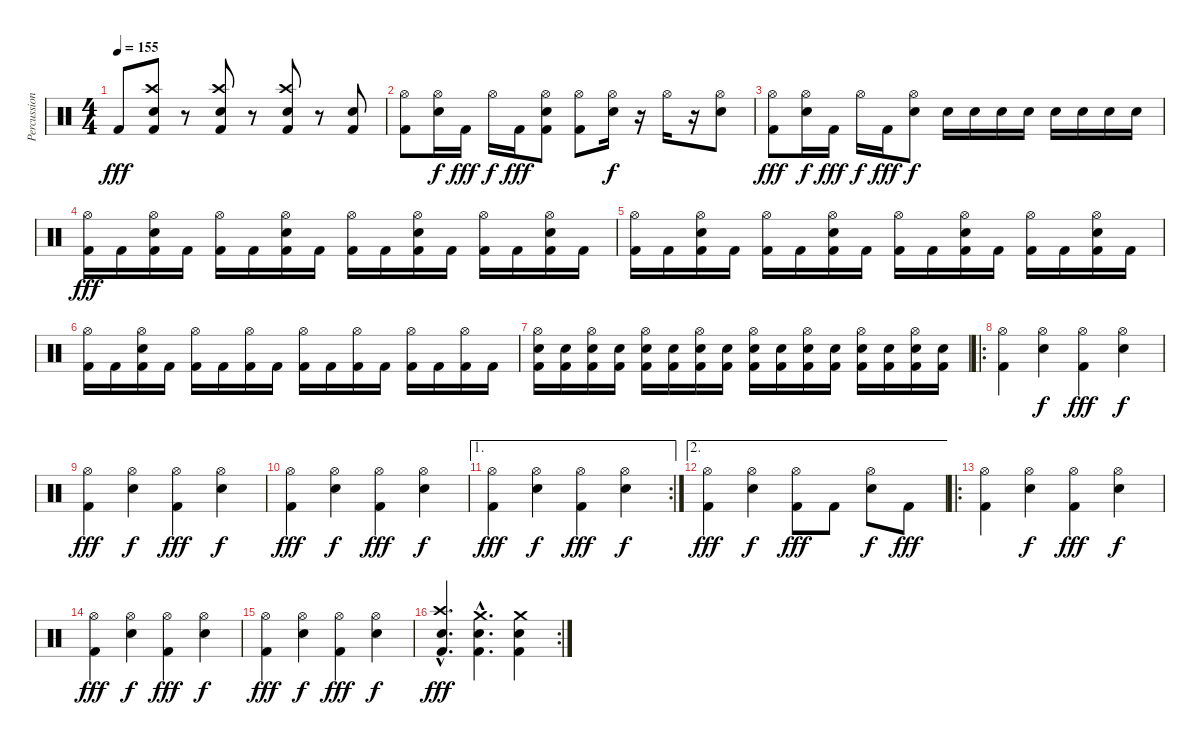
\track ("Percussion" "Percussion") {instrument percussion}
\staff {score}
\articulation defaults
\ts (4 4)
\tempo 155
\clef neutral
\ks c "Kick (hit) 2".8{dy fff}
("Crash high (hit)" "Snare (hit) 2" "Kick (hit) 2").8 r.8 ("Crash high (hit)" "Snare (hit) 2" "Kick (hit) 2").8 r.8 ("Crash high (hit)" "Snare (hit) 2" "Kick (hit) 2").8 r.8 ("Snare (hit) 2" "Kick (hit) 2").8 |
("Hi-Hat (open)" "Kick (hit) 2").8 ("Hi-Hat (open)" "Snare (hit) 2").16{dy f} "Kick (hit) 2".16{dy fff} "Hi-Hat (open)".16{dy f} "Kick (hit) 2".16{dy fff} ("Hi-Hat (open)" "Snare (hit) 2" "Kick (hit) 2").8 ("Hi-Hat (open)" "Kick (hit) 2").8 ("Hi-Hat (open)" "Snare (hit) 2").16{dy f} r.16 "Hi-Hat (open)".16 r.16 ("Hi-Hat (open)" "Snare (hit) 2").8 |
("Hi-Hat (open)" "Kick (hit) 2").8{dy fff} ("Hi-Hat (open)" "Snare (hit) 2").16{dy f} "Kick (hit) 2".16{dy fff} "Hi-Hat (open)".16{dy f} "Kick (hit) 2".16{dy fff} ("Hi-Hat (open)" "Snare (hit) 2").8{dy f} "Snare (hit) 2".16 "Snare (hit) 2".16 "Snare (hit) 2".16 "Snare (hit) 2".16 "Snare (hit) 2".16 "Snare (hit) 2".16 "Snare (hit) 2".16 "Snare (hit) 2".16 |
("Hi-Hat (open)" "Kick (hit) 2").16{dy fff} "Kick (hit) 2".16 ("Hi-Hat (open)" "Snare (hit) 2" "Kick (hit) 2").16 "Kick (hit) 2".16 ("Hi-Hat (open)" "Kick (hit) 2").16 "Kick (hit) 2".16 ("Hi-Hat (open)" "Snare (hit) 2" "Kick (hit) 2").16 "Kick (hit) 2".16 ("Hi-Hat (open)" "Kick (hit) 2").16 "Kick (hit) 2".16 ("Hi-Hat (open)" "Snare (hit) 2" "Kick (hit) 2").16 "Kick (hit) 2".16 ("Hi-Hat (open)" "Kick (hit) 2").16 "Kick (hit) 2".16 ("Hi-Hat (open)" "Snare (hit) 2" "Kick (hit) 2").16 "Kick (hit) 2".16 |
("Hi-Hat (open)" "Kick (hit) 2").16 "Kick (hit) 2".16 ("Hi-Hat (open)" "Snare (hit) 2" "Kick (hit) 2").16 "Kick (hit) 2".16 ("Hi-Hat (open)" "Kick (hit) 2").16 "Kick (hit) 2".16 ("Hi-Hat (open)" "Snare (hit) 2" "Kick (hit) 2").16 "Kick (hit) 2".16 ("Hi-Hat (open)" "Kick (hit) 2").16 "Kick (hit) 2".16 ("Hi-Hat (open)" "Snare (hit) 2" "Kick (hit) 2").16 "Kick (hit) 2".16 ("Hi-Hat (open)" "Kick (hit) 2").16 "Kick (hit) 2".16 ("Hi-Hat (open)" "Snare (hit) 2" "Kick (hit) 2").16 "Kick (hit) 2".16 |
("Hi-Hat (open)" "Kick (hit) 2").16 "Kick (hit) 2".16 ("Hi-Hat (open)" "Snare (hit) 2" "Kick (hit) 2").16 "Kick (hit) 2".16 ("Hi-Hat (open)" "Kick (hit) 2").16 "Kick (hit) 2".16 ("Hi-Hat (open)" "Kick (hit) 2").16 "Kick (hit) 2".16 ("Hi-Hat (open)" "Kick (hit) 2").16 "Kick (hit) 2".16 ("Hi-Hat (open)" "Kick (hit) 2").16 "Kick (hit) 2".16 ("Hi-Hat (open)" "Kick (hit) 2").16 "Kick (hit) 2".16 ("Hi-Hat (open)" "Kick (hit) 2").16 "Kick (hit) 2".16 |
("Hi-Hat (open)" "Snare (hit) 2" "Kick (hit) 2").16 ("Snare (hit) 2" "Kick (hit) 2").16 ("Hi-Hat (open)" "Snare (hit) 2" "Kick (hit) 2").16 ("Snare (hit) 2" "Kick (hit) 2").16 ("Hi-Hat (open)" "Snare (hit) 2" "Kick (hit) 2").16 ("Snare (hit) 2" "Kick (hit) 2").16 ("Hi-Hat (open)" "Snare (hit) 2" "Kick (hit) 2").16 ("Snare (hit) 2" "Kick (hit) 2").16 ("Hi-Hat (open)" "Snare (hit) 2" "Kick (hit) 2").16 ("Snare (hit) 2" "Kick (hit) 2").16 ("Hi-Hat (open)" "Snare (hit) 2" "Kick (hit) 2").16 ("Snare (hit) 2" "Kick (hit) 2").16 ("Hi-Hat (open)" "Snare (hit) 2" "Kick (hit) 2").16 ("Snare (hit) 2" "Kick (hit) 2").16 ("Hi-Hat (open)" "Snare (hit) 2" "Kick (hit) 2").16 ("Snare (hit) 2" "Kick (hit) 2").16 |
\ro
("Hi-Hat (open)" "Kick (hit) 2").4 ("Hi-Hat (open)" "Snare (hit) 2").4{dy f} ("Hi-Hat (open)" "Kick (hit) 2").4{dy fff} ("Hi-Hat (open)" "Snare (hit) 2").4{dy f} |
("Hi-Hat (open)" "Kick (hit) 2").4{dy fff} ("Hi-Hat (open)" "Snare (hit) 2").4{dy f} ("Hi-Hat (open)" "Kick (hit) 2").4{dy fff} ("Hi-Hat (open)" "Snare (hit) 2").4{dy f} |
("Hi-Hat (open)" "Kick (hit) 2").4{dy fff} ("Hi-Hat (open)" "Snare (hit) 2").4{dy f} ("Hi-Hat (open)" "Kick (hit) 2").4{dy fff} ("Hi-Hat (open)" "Snare (hit) 2").4{dy f} |
\ae 1
\rc 2
("Hi-Hat (open)" "Kick (hit) 2").4{dy fff} ("Hi-Hat (open)" "Snare (hit) 2").4{dy f} ("Hi-Hat (open)" "Kick (hit) 2").4{dy fff} ("Hi-Hat (open)" "Snare (hit) 2").4{dy f} |
\ae 2
("Hi-Hat (open)" "Kick (hit) 2").4{dy fff} ("Hi-Hat (open)" "Snare (hit) 2").4{dy f} ("Hi-Hat (open)" "Kick (hit) 2").8{dy fff} "Kick (hit) 2".8 ("Hi-Hat (open)" "Snare (hit) 2").8{dy f} "Kick (hit) 2".8{dy fff} |
\ro
("Hi-Hat (open)" "Kick (hit) 2").4 ("Hi-Hat (open)" "Snare (hit) 2").4{dy f} ("Hi-Hat (open)" "Kick (hit) 2").4{dy fff} ("Hi-Hat (open)" "Snare (hit) 2").4{dy f} |
("Hi-Hat (open)" "Kick (hit) 2").4{dy fff} ("Hi-Hat (open)" "Snare (hit) 2").4{dy f} ("Hi-Hat (open)" "Kick (hit) 2").4{dy fff} ("Hi-Hat (open)" "Snare (hit) 2").4{dy f} |
("Hi-Hat (open)" "Kick (hit) 2").4{dy fff} ("Hi-Hat (open)" "Snare (hit) 2").4{dy f} ("Hi-Hat (open)" "Kick (hit) 2").4{dy fff} ("Hi-Hat (open)" "Snare (hit) 2").4{dy f} |
\rc 2
("Crash high (hit)"{hac} "Snare (hit) 2"{hac} "Kick (hit) 2"{hac}).4{d dy fff} ("Crash medium (hit)"{hac} "Snare (hit) 2"{hac} "Kick (hit) 2"{hac}).4{d} ("Crash medium (hit)" "Snare (hit) 2" "Kick (hit) 2").4
